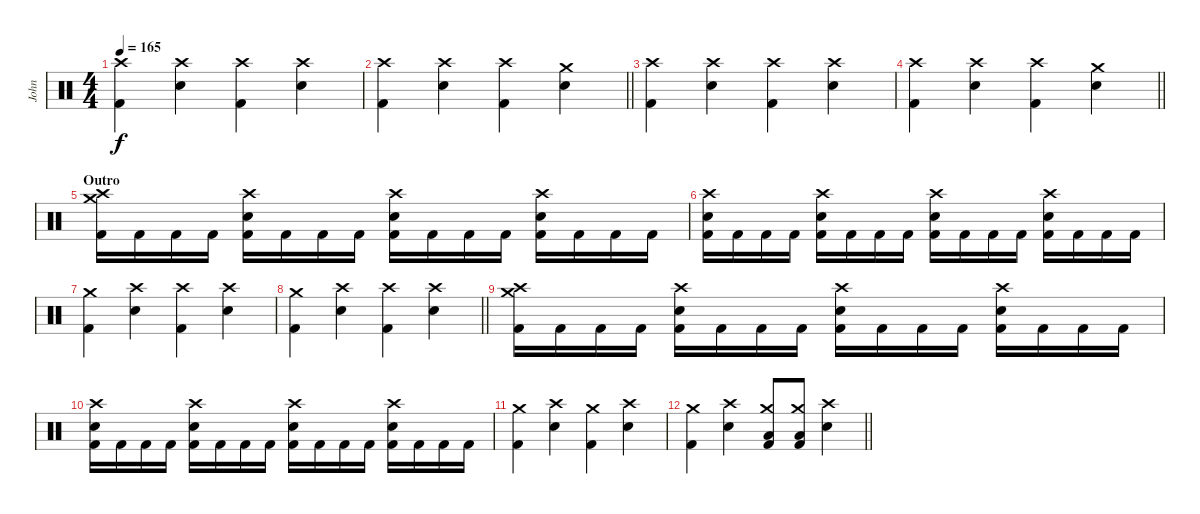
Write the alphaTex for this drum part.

\track ("John" "John") {instrument percussion}
\staff {score}
\articulation defaults
\ts (4 4)
\tempo 165
\clef neutral
\ks c
("Crash high (hit)" "Kick (hit) 2").4{dy f} ("Crash high (hit)" "Electric Snare (hit)").4 ("Crash high (hit)" "Kick (hit) 2").4 ("Crash high (hit)" "Electric Snare (hit)").4 |
\barLineRight lightlight
("Crash high (hit)" "Kick (hit) 2").4 ("Crash high (hit)" "Electric Snare (hit)").4 ("Crash high (hit)" "Kick (hit) 2").4 ("Crash medium (hit)" "Electric Snare (hit)").4 |
("Crash high (hit)" "Kick (hit) 2").4 ("Crash high (hit)" "Electric Snare (hit)").4 ("Crash high (hit)" "Kick (hit) 2").4 ("Crash high (hit)" "Electric Snare (hit)").4 |
\barLineRight lightlight
("Crash high (hit)" "Kick (hit) 2").4 ("Crash high (hit)" "Electric Snare (hit)").4 ("Crash high (hit)" "Kick (hit) 2").4 ("Crash medium (hit)" "Electric Snare (hit)").4 |
\section ("" "Outro")
("Crash medium (hit)" "Crash high (hit)" "Kick (hit) 2").16 "Kick (hit) 2".16 "Kick (hit) 2".16 "Kick (hit) 2".16 ("Crash high (hit)" "Electric Snare (hit)" "Kick (hit) 2").16 "Kick (hit) 2".16 "Kick (hit) 2".16 "Kick (hit) 2".16 ("Crash high (hit)" "Electric Snare (hit)" "Kick (hit) 2").16 "Kick (hit) 2".16 "Kick (hit) 2".16 "Kick (hit) 2".16 ("Crash high (hit)" "Electric Snare (hit)" "Kick (hit) 2").16 "Kick (hit) 2".16 "Kick (hit) 2".16 "Kick (hit) 2".16 |
("Crash high (hit)" "Electric Snare (hit)" "Kick (hit) 2").16 "Kick (hit) 2".16 "Kick (hit) 2".16 "Kick (hit) 2".16 ("Crash high (hit)" "Electric Snare (hit)" "Kick (hit) 2").16 "Kick (hit) 2".16 "Kick (hit) 2".16 "Kick (hit) 2".16 ("Crash high (hit)" "Electric Snare (hit)" "Kick (hit) 2").16 "Kick (hit) 2".16 "Kick (hit) 2".16 "Kick (hit) 2".16 ("Crash high (hit)" "Electric Snare (hit)" "Kick (hit) 2").16 "Kick (hit) 2".16 "Kick (hit) 2".16 "Kick (hit) 2".16 |
("Crash medium (hit)" "Kick (hit) 2").4 ("Crash high (hit)" "Electric Snare (hit)").4 ("Crash high (hit)" "Kick (hit) 2").4 ("Crash high (hit)" "Electric Snare (hit)").4 |
\barLineRight lightlight
("Crash medium (hit)" "Kick (hit) 2").4 ("Crash high (hit)" "Electric Snare (hit)").4 ("Crash high (hit)" "Kick (hit) 2").4 ("Crash high (hit)" "Electric Snare (hit)").4 |
("Crash medium (hit)" "Crash high (hit)" "Kick (hit) 2").16 "Kick (hit) 2".16 "Kick (hit) 2".16 "Kick (hit) 2".16 ("Crash high (hit)" "Electric Snare (hit)" "Kick (hit) 2").16 "Kick (hit) 2".16 "Kick (hit) 2".16 "Kick (hit) 2".16 ("Crash high (hit)" "Electric Snare (hit)" "Kick (hit) 2").16 "Kick (hit) 2".16 "Kick (hit) 2".16 "Kick (hit) 2".16 ("Crash high (hit)" "Electric Snare (hit)" "Kick (hit) 2").16 "Kick (hit) 2".16 "Kick (hit) 2".16 "Kick (hit) 2".16 |
("Crash high (hit)" "Electric Snare (hit)" "Kick (hit) 2").16 "Kick (hit) 2".16 "Kick (hit) 2".16 "Kick (hit) 2".16 ("Crash high (hit)" "Electric Snare (hit)" "Kick (hit) 2").16 "Kick (hit) 2".16 "Kick (hit) 2".16 "Kick (hit) 2".16 ("Crash high (hit)" "Electric Snare (hit)" "Kick (hit) 2").16 "Kick (hit) 2".16 "Kick (hit) 2".16 "Kick (hit) 2".16 ("Crash high (hit)" "Electric Snare (hit)" "Kick (hit) 2").16 "Kick (hit) 2".16 "Kick (hit) 2".16 "Kick (hit) 2".16 |
("Crash medium (hit)" "Kick (hit) 2").4 ("Crash high (hit)" "Electric Snare (hit)").4 ("Crash medium (hit)" "Kick (hit) 2").4 ("Crash high (hit)" "Electric Snare (hit)").4 |
\barLineRight lightlight
("Crash medium (hit)" "Kick (hit) 2").4 ("Crash high (hit)" "Electric Snare (hit)").4 ("Crash medium (hit)" "Low Tom (hit)" "Kick (hit) 2").8 ("Crash medium (hit)" "Low Tom (hit)" "Kick (hit) 2").8 ("Crash high (hit)" "Electric Snare (hit)").4
